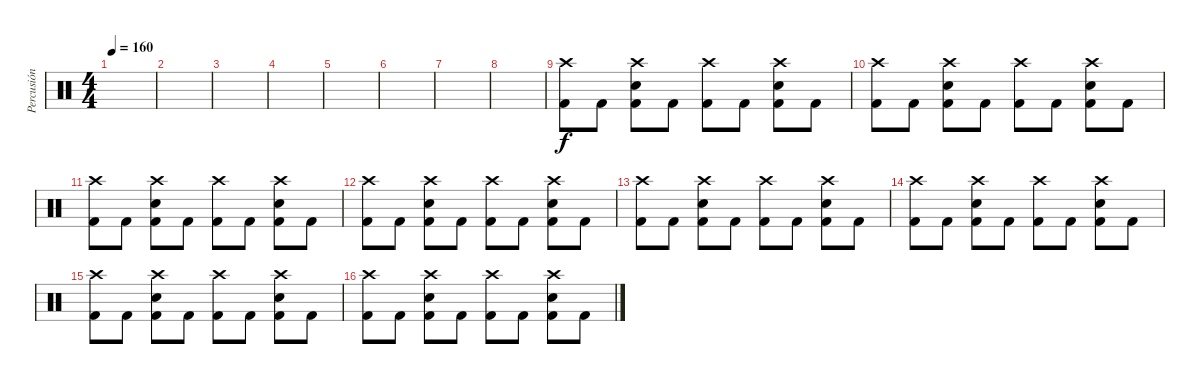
\track ("Percusión" "Percusión") {instrument percussion}
\staff {score}
\articulation defaults
\ts (4 4)
\tempo 160
\clef neutral
\ks c
|
|
|
|
|
|
|
|
("Crash high (hit)" "Kick (hit) 2").8{dy f} "Kick (hit) 2".8 ("Crash high (hit)" "Electric Snare (hit)" "Kick (hit) 2").8 "Kick (hit) 2".8 ("Crash high (hit)" "Kick (hit) 2").8 "Kick (hit) 2".8 ("Crash high (hit)" "Electric Snare (hit)" "Kick (hit) 2").8 "Kick (hit) 2".8 |
("Crash high (hit)" "Kick (hit) 2").8 "Kick (hit) 2".8 ("Crash high (hit)" "Electric Snare (hit)" "Kick (hit) 2").8 "Kick (hit) 2".8 ("Crash high (hit)" "Kick (hit) 2").8 "Kick (hit) 2".8 ("Crash high (hit)" "Electric Snare (hit)" "Kick (hit) 2").8 "Kick (hit) 2".8 |
("Crash high (hit)" "Kick (hit) 2").8 "Kick (hit) 2".8 ("Crash high (hit)" "Electric Snare (hit)" "Kick (hit) 2").8 "Kick (hit) 2".8 ("Crash high (hit)" "Kick (hit) 2").8 "Kick (hit) 2".8 ("Crash high (hit)" "Electric Snare (hit)" "Kick (hit) 2").8 "Kick (hit) 2".8 |
("Crash high (hit)" "Kick (hit) 2").8 "Kick (hit) 2".8 ("Crash high (hit)" "Electric Snare (hit)" "Kick (hit) 2").8 "Kick (hit) 2".8 ("Crash high (hit)" "Kick (hit) 2").8 "Kick (hit) 2".8 ("Crash high (hit)" "Electric Snare (hit)" "Kick (hit) 2").8 "Kick (hit) 2".8 |
("Crash high (hit)" "Kick (hit) 2").8 "Kick (hit) 2".8 ("Crash high (hit)" "Electric Snare (hit)" "Kick (hit) 2").8 "Kick (hit) 2".8 ("Crash high (hit)" "Kick (hit) 2").8 "Kick (hit) 2".8 ("Crash high (hit)" "Electric Snare (hit)" "Kick (hit) 2").8 "Kick (hit) 2".8 |
("Crash high (hit)" "Kick (hit) 2").8 "Kick (hit) 2".8 ("Crash high (hit)" "Electric Snare (hit)" "Kick (hit) 2").8 "Kick (hit) 2".8 ("Crash high (hit)" "Kick (hit) 2").8 "Kick (hit) 2".8 ("Crash high (hit)" "Electric Snare (hit)" "Kick (hit) 2").8 "Kick (hit) 2".8 |
("Crash high (hit)" "Kick (hit) 2").8 "Kick (hit) 2".8 ("Crash high (hit)" "Electric Snare (hit)" "Kick (hit) 2").8 "Kick (hit) 2".8 ("Crash high (hit)" "Kick (hit) 2").8 "Kick (hit) 2".8 ("Crash high (hit)" "Electric Snare (hit)" "Kick (hit) 2").8 "Kick (hit) 2".8 |
("Crash high (hit)" "Kick (hit) 2").8 "Kick (hit) 2".8 ("Crash high (hit)" "Electric Snare (hit)" "Kick (hit) 2").8 "Kick (hit) 2".8 ("Crash high (hit)" "Kick (hit) 2").8 "Kick (hit) 2".8 ("Crash high (hit)" "Electric Snare (hit)" "Kick (hit) 2").8 "Kick (hit) 2".8
